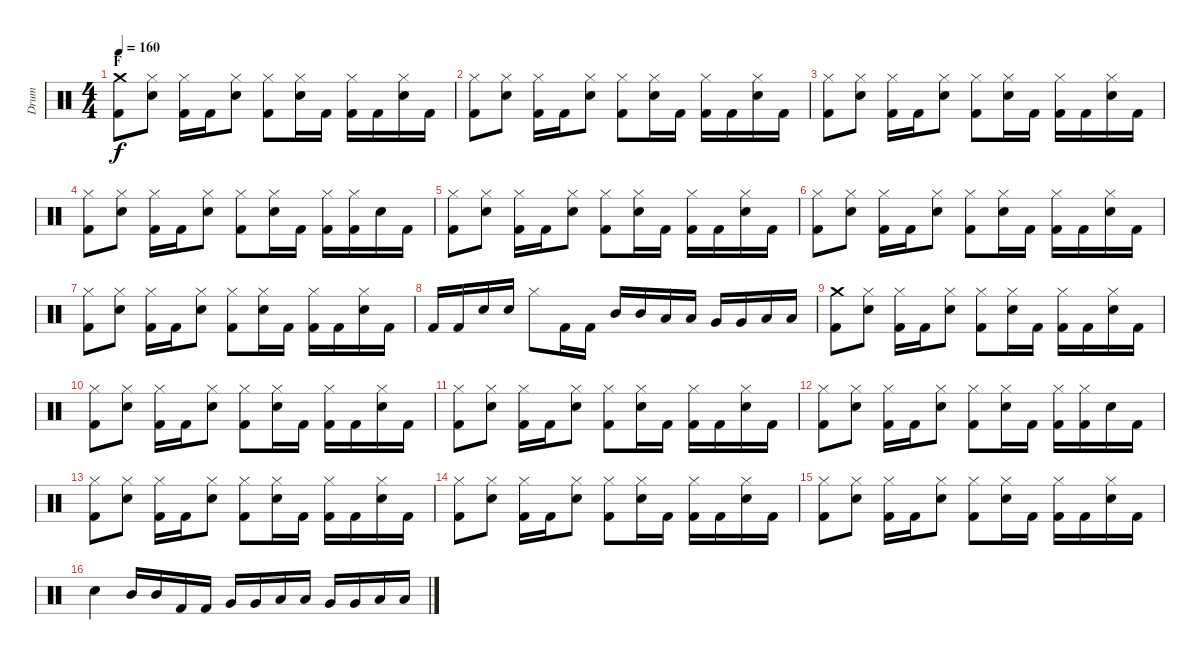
\track ("Drum" "Drum") {instrument percussion}
\staff {score}
\articulation defaults
\ts (4 4)
\section ("" "F")
\tempo 160
\clef neutral
\ks c
("Crash medium (hit)" "Kick (hit) 2").8{dy f} ("Hi-Hat (closed)" "Snare (hit) 2").8 ("Hi-Hat (closed)" "Kick (hit) 2").16 "Kick (hit) 2".16 ("Hi-Hat (closed)" "Snare (hit) 2").8 ("Hi-Hat (closed)" "Kick (hit) 2").8 ("Hi-Hat (closed)" "Snare (hit) 2").16 "Kick (hit) 2".16 ("Hi-Hat (closed)" "Kick (hit) 2").16 "Kick (hit) 2".16 ("Hi-Hat (closed)" "Snare (hit) 2").16 "Kick (hit) 2".16 |
("Hi-Hat (closed)" "Kick (hit) 2").8 ("Hi-Hat (closed)" "Snare (hit) 2").8 ("Hi-Hat (closed)" "Kick (hit) 2").16 "Kick (hit) 2".16 ("Hi-Hat (closed)" "Snare (hit) 2").8 ("Hi-Hat (closed)" "Kick (hit) 2").8 ("Hi-Hat (closed)" "Snare (hit) 2").16 "Kick (hit) 2".16 ("Hi-Hat (closed)" "Kick (hit) 2").16 "Kick (hit) 2".16 ("Hi-Hat (closed)" "Snare (hit) 2").16 "Kick (hit) 2".16 |
("Hi-Hat (closed)" "Kick (hit) 2").8 ("Hi-Hat (closed)" "Snare (hit) 2").8 ("Hi-Hat (closed)" "Kick (hit) 2").16 "Kick (hit) 2".16 ("Hi-Hat (closed)" "Snare (hit) 2").8 ("Hi-Hat (closed)" "Kick (hit) 2").8 ("Hi-Hat (closed)" "Snare (hit) 2").16 "Kick (hit) 2".16 ("Hi-Hat (closed)" "Kick (hit) 2").16 "Kick (hit) 2".16 ("Hi-Hat (closed)" "Snare (hit) 2").16 "Kick (hit) 2".16 |
("Hi-Hat (closed)" "Kick (hit) 2").8 ("Hi-Hat (closed)" "Snare (hit) 2").8 ("Hi-Hat (closed)" "Kick (hit) 2").16 "Kick (hit) 2".16 ("Hi-Hat (closed)" "Snare (hit) 2").8 ("Hi-Hat (closed)" "Kick (hit) 2").8 ("Hi-Hat (closed)" "Snare (hit) 2").16 "Kick (hit) 2".16 ("Hi-Hat (closed)" "Kick (hit) 2").16 ("Hi-Hat (closed)" "Kick (hit) 2").16 "Snare (hit) 2".16 "Kick (hit) 2".16 |
("Hi-Hat (closed)" "Kick (hit) 2").8 ("Hi-Hat (closed)" "Snare (hit) 2").8 ("Hi-Hat (closed)" "Kick (hit) 2").16 "Kick (hit) 2".16 ("Hi-Hat (closed)" "Snare (hit) 2").8 ("Hi-Hat (closed)" "Kick (hit) 2").8 ("Hi-Hat (closed)" "Snare (hit) 2").16 "Kick (hit) 2".16 ("Hi-Hat (closed)" "Kick (hit) 2").16 "Kick (hit) 2".16 ("Hi-Hat (closed)" "Snare (hit) 2").16 "Kick (hit) 2".16 |
("Hi-Hat (closed)" "Kick (hit) 2").8 ("Hi-Hat (closed)" "Snare (hit) 2").8 ("Hi-Hat (closed)" "Kick (hit) 2").16 "Kick (hit) 2".16 ("Hi-Hat (closed)" "Snare (hit) 2").8 ("Hi-Hat (closed)" "Kick (hit) 2").8 ("Hi-Hat (closed)" "Snare (hit) 2").16 "Kick (hit) 2".16 ("Hi-Hat (closed)" "Kick (hit) 2").16 "Kick (hit) 2".16 ("Hi-Hat (closed)" "Snare (hit) 2").16 "Kick (hit) 2".16 |
("Hi-Hat (closed)" "Kick (hit) 2").8 ("Hi-Hat (closed)" "Snare (hit) 2").8 ("Hi-Hat (closed)" "Kick (hit) 2").16 "Kick (hit) 2".16 ("Hi-Hat (closed)" "Snare (hit) 2").8 ("Hi-Hat (closed)" "Kick (hit) 2").8 ("Hi-Hat (closed)" "Snare (hit) 2").16 "Kick (hit) 2".16 ("Hi-Hat (closed)" "Kick (hit) 2").16 "Kick (hit) 2".16 ("Hi-Hat (closed)" "Snare (hit) 2").16 "Kick (hit) 2".16 |
"Kick (hit) 2".16 "Kick (hit) 2".16 "Snare (hit) 2".16 "Snare (hit) 2".16 "Hi-Hat (closed)".8 "Kick (hit) 2".16 "Kick (hit) 2".16 "Mid Tom (hit)".16 "Mid Tom (hit)".16 "Low Tom (hit)".16 "Low Tom (hit)".16 "Very Low Tom (hit)".16 "Very Low Tom (hit)".16 "Low Floor Tom (hit)".16 "Low Floor Tom (hit)".16 |
("Crash medium (hit)" "Kick (hit) 2").8 ("Hi-Hat (closed)" "Snare (hit) 2").8 ("Hi-Hat (closed)" "Kick (hit) 2").16 "Kick (hit) 2".16 ("Hi-Hat (closed)" "Snare (hit) 2").8 ("Hi-Hat (closed)" "Kick (hit) 2").8 ("Hi-Hat (closed)" "Snare (hit) 2").16 "Kick (hit) 2".16 ("Hi-Hat (closed)" "Kick (hit) 2").16 "Kick (hit) 2".16 ("Hi-Hat (closed)" "Snare (hit) 2").16 "Kick (hit) 2".16 |
("Hi-Hat (closed)" "Kick (hit) 2").8 ("Hi-Hat (closed)" "Snare (hit) 2").8 ("Hi-Hat (closed)" "Kick (hit) 2").16 "Kick (hit) 2".16 ("Hi-Hat (closed)" "Snare (hit) 2").8 ("Hi-Hat (closed)" "Kick (hit) 2").8 ("Hi-Hat (closed)" "Snare (hit) 2").16 "Kick (hit) 2".16 ("Hi-Hat (closed)" "Kick (hit) 2").16 "Kick (hit) 2".16 ("Hi-Hat (closed)" "Snare (hit) 2").16 "Kick (hit) 2".16 |
("Hi-Hat (closed)" "Kick (hit) 2").8 ("Hi-Hat (closed)" "Snare (hit) 2").8 ("Hi-Hat (closed)" "Kick (hit) 2").16 "Kick (hit) 2".16 ("Hi-Hat (closed)" "Snare (hit) 2").8 ("Hi-Hat (closed)" "Kick (hit) 2").8 ("Hi-Hat (closed)" "Snare (hit) 2").16 "Kick (hit) 2".16 ("Hi-Hat (closed)" "Kick (hit) 2").16 "Kick (hit) 2".16 ("Hi-Hat (closed)" "Snare (hit) 2").16 "Kick (hit) 2".16 |
("Hi-Hat (closed)" "Kick (hit) 2").8 ("Hi-Hat (closed)" "Snare (hit) 2").8 ("Hi-Hat (closed)" "Kick (hit) 2").16 "Kick (hit) 2".16 ("Hi-Hat (closed)" "Snare (hit) 2").8 ("Hi-Hat (closed)" "Kick (hit) 2").8 ("Hi-Hat (closed)" "Snare (hit) 2").16 "Kick (hit) 2".16 ("Hi-Hat (closed)" "Kick (hit) 2").16 ("Hi-Hat (closed)" "Kick (hit) 2").16 "Snare (hit) 2".16 "Kick (hit) 2".16 |
("Hi-Hat (closed)" "Kick (hit) 2").8 ("Hi-Hat (closed)" "Snare (hit) 2").8 ("Hi-Hat (closed)" "Kick (hit) 2").16 "Kick (hit) 2".16 ("Hi-Hat (closed)" "Snare (hit) 2").8 ("Hi-Hat (closed)" "Kick (hit) 2").8 ("Hi-Hat (closed)" "Snare (hit) 2").16 "Kick (hit) 2".16 ("Hi-Hat (closed)" "Kick (hit) 2").16 "Kick (hit) 2".16 ("Hi-Hat (closed)" "Snare (hit) 2").16 "Kick (hit) 2".16 |
("Hi-Hat (closed)" "Kick (hit) 2").8 ("Hi-Hat (closed)" "Snare (hit) 2").8 ("Hi-Hat (closed)" "Kick (hit) 2").16 "Kick (hit) 2".16 ("Hi-Hat (closed)" "Snare (hit) 2").8 ("Hi-Hat (closed)" "Kick (hit) 2").8 ("Hi-Hat (closed)" "Snare (hit) 2").16 "Kick (hit) 2".16 ("Hi-Hat (closed)" "Kick (hit) 2").16 "Kick (hit) 2".16 ("Hi-Hat (closed)" "Snare (hit) 2").16 "Kick (hit) 2".16 |
("Hi-Hat (closed)" "Kick (hit) 2").8 ("Hi-Hat (closed)" "Snare (hit) 2").8 ("Hi-Hat (closed)" "Kick (hit) 2").16 "Kick (hit) 2".16 ("Hi-Hat (closed)" "Snare (hit) 2").8 ("Hi-Hat (closed)" "Kick (hit) 2").8 ("Hi-Hat (closed)" "Snare (hit) 2").16 "Kick (hit) 2".16 ("Hi-Hat (closed)" "Kick (hit) 2").16 "Kick (hit) 2".16 ("Hi-Hat (closed)" "Snare (hit) 2").16 "Kick (hit) 2".16 |
"Snare (hit) 2".4 "Mid Tom (hit)".16 "Mid Tom (hit)".16 "Kick (hit) 2".16 "Kick (hit) 2".16 "Very Low Tom (hit)".16 "Very Low Tom (hit)".16 "Low Tom (hit)".16 "Low Tom (hit)".16 "Very Low Tom (hit)".16 "Very Low Tom (hit)".16 "Low Floor Tom (hit)".16 "Low Floor Tom (hit)".16
